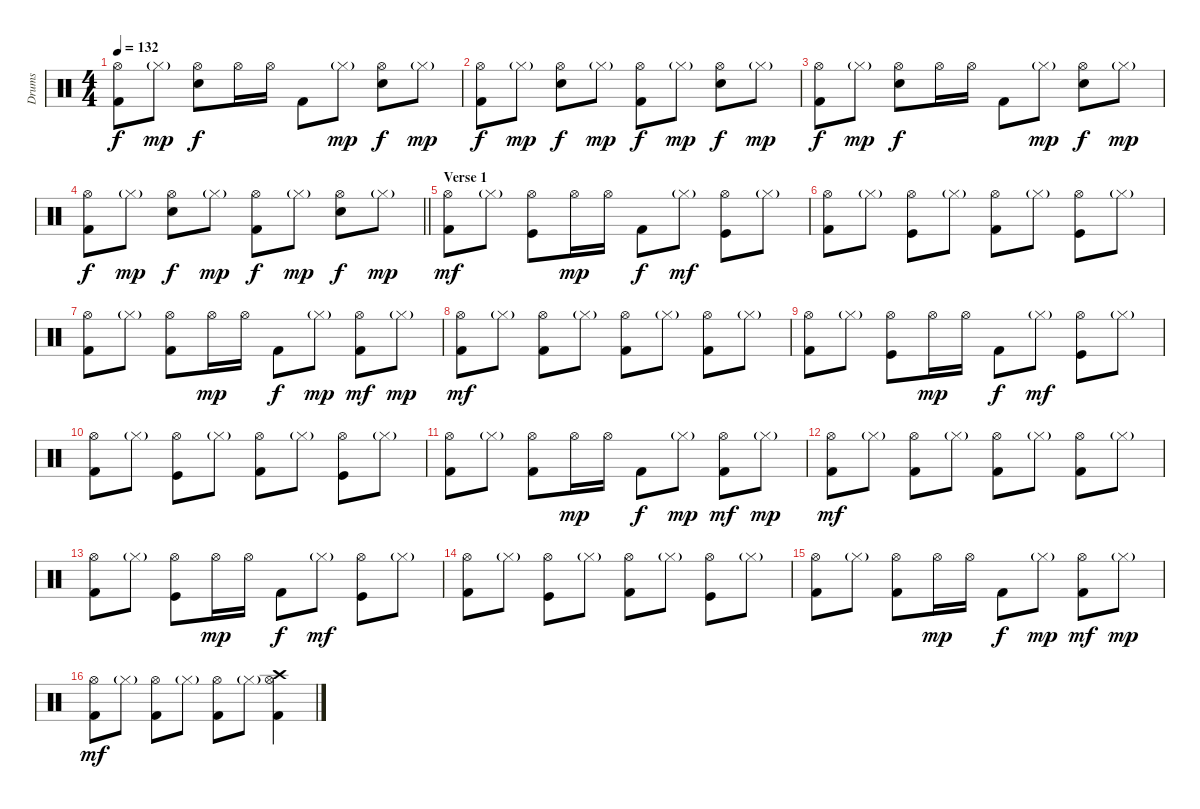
\track ("Drums" "Drums") {instrument percussion}
\staff {score}
\articulation defaults
\ts (4 4)
\tempo 132
\clef neutral
\ks c
("Hi-Hat (open)" "Kick (hit) 2").8{dy f} "Hi-Hat (closed)"{g}.8{dy mp} ("Hi-Hat (open)" "Snare (hit) 2").8{dy f} "Hi-Hat (open)".16 "Hi-Hat (open)".16 "Kick (hit) 2".8 "Hi-Hat (closed)"{g}.8{dy mp} ("Hi-Hat (open)" "Snare (hit) 2").8{dy f} "Hi-Hat (closed)"{g}.8{dy mp} |
("Hi-Hat (open)" "Kick (hit) 2").8{dy f} "Hi-Hat (closed)"{g}.8{dy mp} ("Hi-Hat (open)" "Snare (hit) 2").8{dy f} "Hi-Hat (closed)"{g}.8{dy mp} ("Hi-Hat (open)" "Kick (hit) 2").8{dy f} "Hi-Hat (closed)"{g}.8{dy mp} ("Hi-Hat (open)" "Snare (hit) 2").8{dy f} "Hi-Hat (closed)"{g}.8{dy mp} |
("Hi-Hat (open)" "Kick (hit) 2").8{dy f} "Hi-Hat (closed)"{g}.8{dy mp} ("Hi-Hat (open)" "Snare (hit) 2").8{dy f} "Hi-Hat (open)".16 "Hi-Hat (open)".16 "Kick (hit) 2".8 "Hi-Hat (closed)"{g}.8{dy mp} ("Hi-Hat (open)" "Snare (hit) 2").8{dy f} "Hi-Hat (closed)"{g}.8{dy mp} |
\barLineRight lightlight
("Hi-Hat (open)" "Kick (hit) 2").8{dy f} "Hi-Hat (closed)"{g}.8{dy mp} ("Hi-Hat (open)" "Snare (hit) 2").8{dy f} "Hi-Hat (closed)"{g}.8{dy mp} ("Hi-Hat (open)" "Kick (hit) 2").8{dy f} "Hi-Hat (closed)"{g}.8{dy mp} ("Hi-Hat (open)" "Snare (hit) 2").8{dy f} "Hi-Hat (closed)"{g}.8{dy mp} |
\section ("" "Verse 1")
("Hi-Hat (open)" "Kick (hit) 2").8{dy mf} "Hi-Hat (closed)"{g}.8 ("Hi-Hat (open)" "Kick (hit)").8 "Hi-Hat (open)".16{dy mp} "Hi-Hat (open)".16 "Kick (hit) 2".8{dy f} "Hi-Hat (closed)"{g}.8{dy mf} ("Hi-Hat (open)" "Kick (hit)").8 "Hi-Hat (closed)"{g}.8 |
("Hi-Hat (open)" "Kick (hit) 2").8 "Hi-Hat (closed)"{g}.8 ("Hi-Hat (open)" "Kick (hit)").8 "Hi-Hat (closed)"{g}.8 ("Hi-Hat (open)" "Kick (hit) 2").8 "Hi-Hat (closed)"{g}.8 ("Hi-Hat (open)" "Kick (hit)").8 "Hi-Hat (closed)"{g}.8 |
("Hi-Hat (open)" "Kick (hit) 2").8 "Hi-Hat (closed)"{g}.8 ("Hi-Hat (open)" "Kick (hit) 2").8 "Hi-Hat (open)".16{dy mp} "Hi-Hat (open)".16 "Kick (hit) 2".8{dy f} "Hi-Hat (closed)"{g}.8{dy mp} ("Hi-Hat (open)" "Kick (hit) 2").8{dy mf} "Hi-Hat (closed)"{g}.8{dy mp} |
("Hi-Hat (open)" "Kick (hit) 2").8{dy mf} "Hi-Hat (closed)"{g}.8 ("Hi-Hat (open)" "Kick (hit) 2").8 "Hi-Hat (closed)"{g}.8 ("Hi-Hat (open)" "Kick (hit) 2").8 "Hi-Hat (closed)"{g}.8 ("Hi-Hat (open)" "Kick (hit) 2").8 "Hi-Hat (closed)"{g}.8 |
("Hi-Hat (open)" "Kick (hit) 2").8 "Hi-Hat (closed)"{g}.8 ("Hi-Hat (open)" "Kick (hit)").8 "Hi-Hat (open)".16{dy mp} "Hi-Hat (open)".16 "Kick (hit) 2".8{dy f} "Hi-Hat (closed)"{g}.8{dy mf} ("Hi-Hat (open)" "Kick (hit)").8 "Hi-Hat (closed)"{g}.8 |
("Hi-Hat (open)" "Kick (hit) 2").8 "Hi-Hat (closed)"{g}.8 ("Hi-Hat (open)" "Kick (hit)").8 "Hi-Hat (closed)"{g}.8 ("Hi-Hat (open)" "Kick (hit) 2").8 "Hi-Hat (closed)"{g}.8 ("Hi-Hat (open)" "Kick (hit)").8 "Hi-Hat (closed)"{g}.8 |
("Hi-Hat (open)" "Kick (hit) 2").8 "Hi-Hat (closed)"{g}.8 ("Hi-Hat (open)" "Kick (hit) 2").8 "Hi-Hat (open)".16{dy mp} "Hi-Hat (open)".16 "Kick (hit) 2".8{dy f} "Hi-Hat (closed)"{g}.8{dy mp} ("Hi-Hat (open)" "Kick (hit) 2").8{dy mf} "Hi-Hat (closed)"{g}.8{dy mp} |
("Hi-Hat (open)" "Kick (hit) 2").8{dy mf} "Hi-Hat (closed)"{g}.8 ("Hi-Hat (open)" "Kick (hit) 2").8 "Hi-Hat (closed)"{g}.8 ("Hi-Hat (open)" "Kick (hit) 2").8 "Hi-Hat (closed)"{g}.8 ("Hi-Hat (open)" "Kick (hit) 2").8 "Hi-Hat (closed)"{g}.8 |
("Hi-Hat (open)" "Kick (hit) 2").8 "Hi-Hat (closed)"{g}.8 ("Hi-Hat (open)" "Kick (hit)").8 "Hi-Hat (open)".16{dy mp} "Hi-Hat (open)".16 "Kick (hit) 2".8{dy f} "Hi-Hat (closed)"{g}.8{dy mf} ("Hi-Hat (open)" "Kick (hit)").8 "Hi-Hat (closed)"{g}.8 |
("Hi-Hat (open)" "Kick (hit) 2").8 "Hi-Hat (closed)"{g}.8 ("Hi-Hat (open)" "Kick (hit)").8 "Hi-Hat (closed)"{g}.8 ("Hi-Hat (open)" "Kick (hit) 2").8 "Hi-Hat (closed)"{g}.8 ("Hi-Hat (open)" "Kick (hit)").8 "Hi-Hat (closed)"{g}.8 |
("Hi-Hat (open)" "Kick (hit) 2").8 "Hi-Hat (closed)"{g}.8 ("Hi-Hat (open)" "Kick (hit) 2").8 "Hi-Hat (open)".16{dy mp} "Hi-Hat (open)".16 "Kick (hit) 2".8{dy f} "Hi-Hat (closed)"{g}.8{dy mp} ("Hi-Hat (open)" "Kick (hit) 2").8{dy mf} "Hi-Hat (closed)"{g}.8{dy mp} |
("Hi-Hat (open)" "Kick (hit) 2").8{dy mf} "Hi-Hat (closed)"{g}.8 ("Hi-Hat (open)" "Kick (hit) 2").8 "Hi-Hat (closed)"{g}.8 ("Hi-Hat (open)" "Kick (hit) 2").8 "Hi-Hat (closed)"{g}.8 ("Hi-Hat (open)" "Crash high (hit)" "Kick (hit) 2").4
